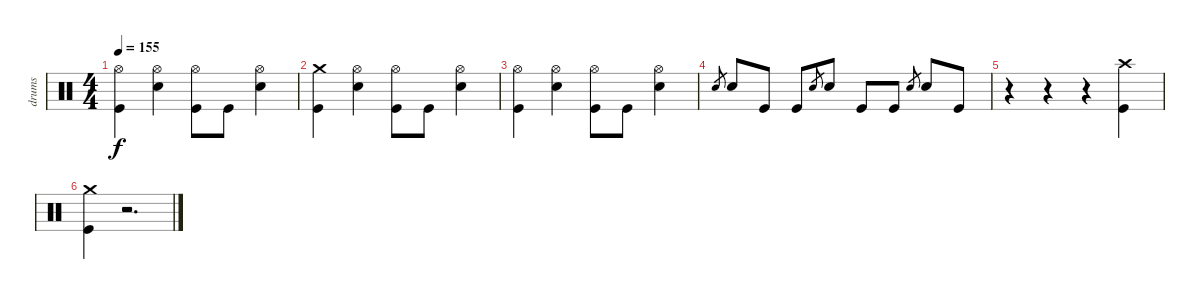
\track ("drums" "drums") {instrument percussion}
\staff {score}
\articulation defaults
\ts (4 4)
\tempo 155
\clef neutral
\ks c
("Hi-Hat (open)" "Kick (hit)").4{dy f} ("Hi-Hat (open)" "Snare (hit) 2").4 ("Hi-Hat (open)" "Kick (hit)").8 "Kick (hit)".8 ("Hi-Hat (open)" "Snare (hit) 2").4 |
("Crash medium (hit)" "Kick (hit)").4 ("Hi-Hat (open)" "Snare (hit) 2").4 ("Hi-Hat (open)" "Kick (hit)").8 "Kick (hit)".8 ("Hi-Hat (open)" "Snare (hit) 2").4 |
("Hi-Hat (open)" "Kick (hit)").4 ("Hi-Hat (open)" "Snare (hit) 2").4 ("Hi-Hat (open)" "Kick (hit)").8 "Kick (hit)".8 ("Hi-Hat (open)" "Snare (hit) 2").4 |
"Snare (hit) 2".8{gr} "Snare (hit) 2".8 "Kick (hit)".8 "Kick (hit)".8 "Snare (hit) 2".8{gr} "Snare (hit) 2".8 "Kick (hit)".8 "Kick (hit)".8 "Snare (hit) 2".8{gr} "Snare (hit) 2".8 "Kick (hit)".8 |
r.4 r.4 r.4 ("Crash high (hit)" "Kick (hit)").4 |
("Crash medium (hit)" "Kick (hit)").4 r.2{d}
